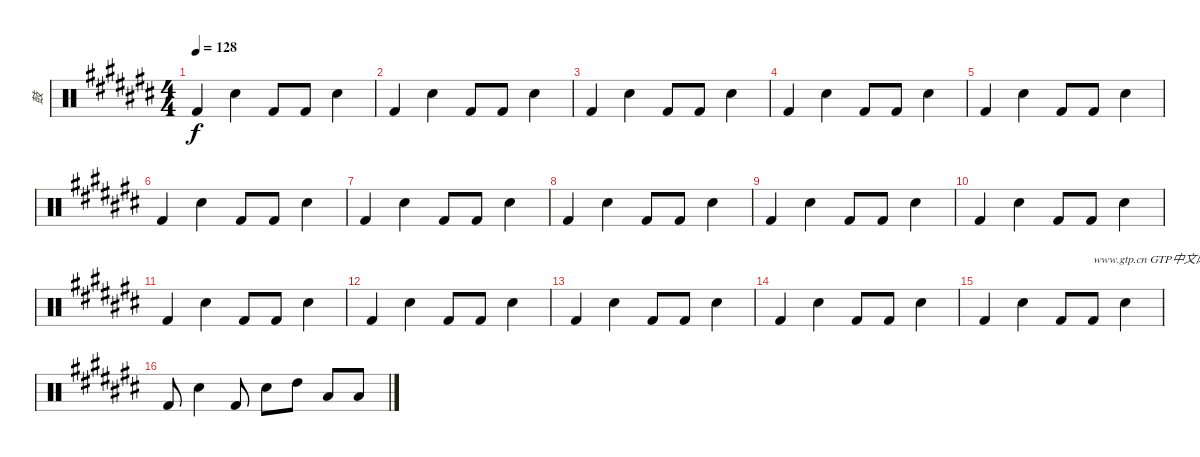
\track ("鼓" "鼓") {instrument percussion}
\staff {score}
\articulation defaults
\ts (4 4)
\tempo 128
\clef neutral
\ks c# "Kick (hit) 2".4{dy f} "Hand Clap (hit)".4 "Kick (hit) 2".8 "Kick (hit) 2".8 "Hand Clap (hit)".4
|
"Kick (hit) 2".4 "Hand Clap (hit)".4 "Kick (hit) 2".8 "Kick (hit) 2".8 "Hand Clap (hit)".4 |
"Kick (hit) 2".4 "Hand Clap (hit)".4 "Kick (hit) 2".8 "Kick (hit) 2".8 "Hand Clap (hit)".4 |
"Kick (hit) 2".4 "Hand Clap (hit)".4 "Kick (hit) 2".8 "Kick (hit) 2".8 "Hand Clap (hit)".4 |
"Kick (hit) 2".4 "Hand Clap (hit)".4 "Kick (hit) 2".8 "Kick (hit) 2".8 "Hand Clap (hit)".4 |
"Kick (hit) 2".4 "Hand Clap (hit)".4 "Kick (hit) 2".8 "Kick (hit) 2".8 "Hand Clap (hit)".4 |
"Kick (hit) 2".4 "Hand Clap (hit)".4 "Kick (hit) 2".8 "Kick (hit) 2".8 "Hand Clap (hit)".4 |
"Kick (hit) 2".4 "Hand Clap (hit)".4 "Kick (hit) 2".8 "Kick (hit) 2".8 "Hand Clap (hit)".4 |
"Kick (hit) 2".4 "Hand Clap (hit)".4 "Kick (hit) 2".8 "Kick (hit) 2".8 "Hand Clap (hit)".4 |
"Kick (hit) 2".4 "Hand Clap (hit)".4 "Kick (hit) 2".8 "Kick (hit) 2".8 "Hand Clap (hit)".4 |
"Kick (hit) 2".4 "Hand Clap (hit)".4 "Kick (hit) 2".8 "Kick (hit) 2".8 "Hand Clap (hit)".4 |
"Kick (hit) 2".4 "Hand Clap (hit)".4 "Kick (hit) 2".8 "Kick (hit) 2".8 "Hand Clap (hit)".4 |
"Kick (hit) 2".4 "Hand Clap (hit)".4 "Kick (hit) 2".8 "Kick (hit) 2".8 "Hand Clap (hit)".4 |
"Kick (hit) 2".4 "Hand Clap (hit)".4 "Kick (hit) 2".8 "Kick (hit) 2".8 "Hand Clap (hit)".4 |
"Kick (hit) 2".4 "Hand Clap (hit)".4 "Kick (hit) 2".8 "Kick (hit) 2".8{txt "www.gtp.cn GTP中文网为您提供优秀的谱子"} "Hand Clap (hit)".4 |
"Kick (hit) 2".8 "Hand Clap (hit)".4 "Kick (hit) 2".8 "Hand Clap (hit)".8 "High Tom (hit)".8 "Low Tom (hit)".8 "Low Floor Tom (hit)".8
